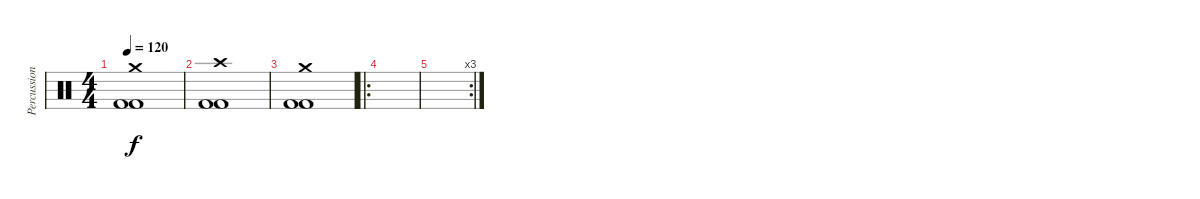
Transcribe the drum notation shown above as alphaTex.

\track ("Percussion" "Percussion") {instrument percussion}
\staff {score}
\articulation defaults
\ts (4 4)
\tempo 120
\clef neutral
\ks c
("Crash medium (hit)" "Kick (hit) 2" "Kick (hit) 2").1{dy f} |
("Crash high (hit)" "Kick (hit) 2" "Kick (hit) 2").1 |
("Crash medium (hit)" "Kick (hit) 2" "Kick (hit) 2").1 |
\ro
|
\rc 3
